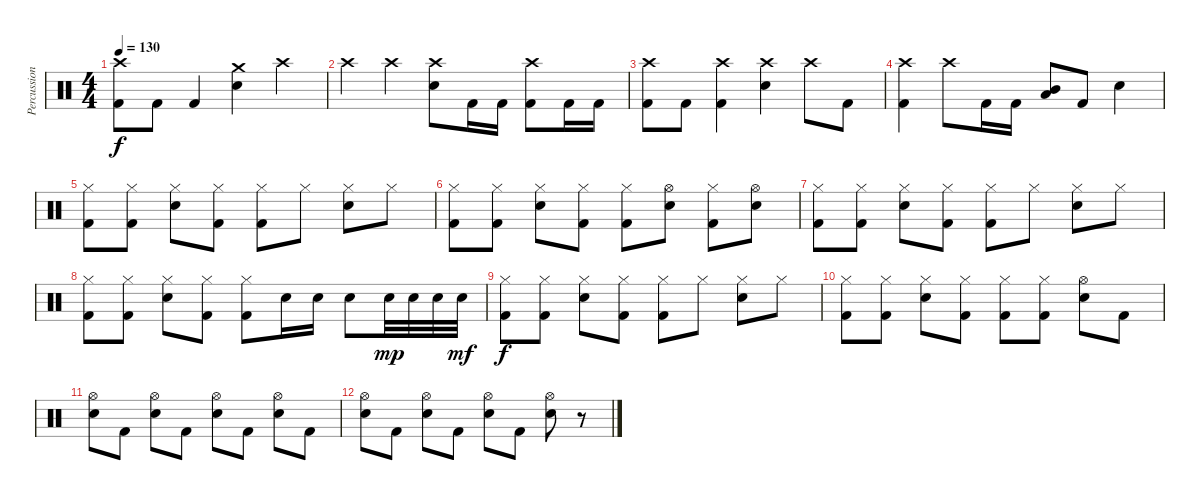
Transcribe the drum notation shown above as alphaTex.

\track ("Percussion" "Percussion") {instrument percussion}
\staff {score}
\articulation defaults
\ts (4 4)
\tempo 130
\clef neutral
\ks c
("Crash high (hit)" "Kick (hit) 2").8{dy f} "Kick (hit) 2".8 "Kick (hit) 2".4 ("Crash medium (hit)" "Electric Snare (hit)").4 "Crash high (hit)".4 |
"Crash high (hit)".4 "Crash high (hit)".4 ("Crash high (hit)" "Electric Snare (hit)").8 "Kick (hit) 2".16 "Kick (hit) 2".16 ("Crash high (hit)" "Kick (hit) 2").8 "Kick (hit) 2".16 "Kick (hit) 2".16 |
("Crash high (hit)" "Kick (hit) 2").8 "Kick (hit) 2".8 ("Crash high (hit)" "Kick (hit) 2").4 ("Crash high (hit)" "Electric Snare (hit)").4 "Crash high (hit)".8 "Kick (hit) 2".8 |
("Crash high (hit)" "Kick (hit) 2").4 "Crash high (hit)".8 "Kick (hit) 2".16 "Kick (hit) 2".16 ("Mid Tom (hit)" "Low Tom (hit)").8 "Kick (hit) 2".8 "Electric Snare (hit)".4 |
("Hi-Hat (closed)" "Kick (hit) 2").8 ("Hi-Hat (closed)" "Kick (hit) 2").8 ("Hi-Hat (closed)" "Electric Snare (hit)").8 ("Hi-Hat (closed)" "Kick (hit) 2").8 ("Hi-Hat (closed)" "Kick (hit) 2").8 "Hi-Hat (closed)".8 ("Hi-Hat (closed)" "Electric Snare (hit)").8 "Hi-Hat (closed)".8 |
("Hi-Hat (closed)" "Kick (hit) 2").8 ("Hi-Hat (closed)" "Kick (hit) 2").8 ("Hi-Hat (closed)" "Electric Snare (hit)").8 ("Hi-Hat (closed)" "Kick (hit) 2").8 ("Hi-Hat (closed)" "Kick (hit) 2").8 ("Hi-Hat (open)" "Electric Snare (hit)").8 ("Hi-Hat (closed)" "Kick (hit) 2").8 ("Hi-Hat (open)" "Electric Snare (hit)").8 |
("Hi-Hat (closed)" "Kick (hit) 2").8 ("Hi-Hat (closed)" "Kick (hit) 2").8 ("Hi-Hat (closed)" "Electric Snare (hit)").8 ("Hi-Hat (closed)" "Kick (hit) 2").8 ("Hi-Hat (closed)" "Kick (hit) 2").8 "Hi-Hat (closed)".8 ("Hi-Hat (closed)" "Electric Snare (hit)").8 "Hi-Hat (closed)".8 |
("Hi-Hat (closed)" "Kick (hit) 2").8 ("Hi-Hat (closed)" "Kick (hit) 2").8 ("Hi-Hat (closed)" "Electric Snare (hit)").8 ("Hi-Hat (closed)" "Kick (hit) 2").8 ("Hi-Hat (closed)" "Kick (hit) 2").8 "Electric Snare (hit)".16 "Electric Snare (hit)".16 "Electric Snare (hit)".8 "Electric Snare (hit)".32{dy mp} "Electric Snare (hit)".32 "Electric Snare (hit)".32 "Electric Snare (hit)".32{dy mf} |
("Hi-Hat (closed)" "Kick (hit) 2").8{dy f} ("Hi-Hat (closed)" "Kick (hit) 2").8 ("Hi-Hat (closed)" "Electric Snare (hit)").8 ("Hi-Hat (closed)" "Kick (hit) 2").8 ("Hi-Hat (closed)" "Kick (hit) 2").8 "Hi-Hat (closed)".8 ("Hi-Hat (closed)" "Electric Snare (hit)").8 "Hi-Hat (closed)".8 |
("Hi-Hat (closed)" "Kick (hit) 2").8 ("Hi-Hat (closed)" "Kick (hit) 2").8 ("Hi-Hat (closed)" "Electric Snare (hit)").8 ("Hi-Hat (closed)" "Kick (hit) 2").8 ("Hi-Hat (closed)" "Kick (hit) 2").8 ("Hi-Hat (closed)" "Kick (hit) 2").8 ("Hi-Hat (open)" "Electric Snare (hit)").8 "Kick (hit) 2".8 |
("Hi-Hat (open)" "Electric Snare (hit)").8 "Kick (hit) 2".8 ("Hi-Hat (open)" "Electric Snare (hit)").8 "Kick (hit) 2".8 ("Hi-Hat (open)" "Electric Snare (hit)").8 "Kick (hit) 2".8 ("Hi-Hat (open)" "Electric Snare (hit)").8 "Kick (hit) 2".8 |
("Hi-Hat (open)" "Electric Snare (hit)").8 "Kick (hit) 2".8 ("Hi-Hat (open)" "Electric Snare (hit)").8 "Kick (hit) 2".8 ("Hi-Hat (open)" "Electric Snare (hit)").8 "Kick (hit) 2".8 ("Hi-Hat (open)" "Electric Snare (hit)").8 r.8
